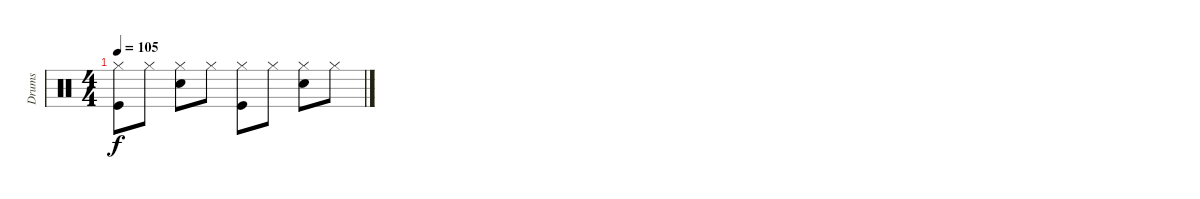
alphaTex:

\track ("Drums" "Drums") {instrument percussion}
\staff {score}
\articulation defaults
\ts (4 4)
\tempo 105
\clef neutral
\ks c
("Hi-Hat (closed)" "Kick (hit)").8{dy f} "Hi-Hat (closed)".8 ("Hi-Hat (closed)" "Electric Snare (hit)").8 "Hi-Hat (closed)".8 ("Hi-Hat (closed)" "Kick (hit)").8 "Hi-Hat (closed)".8 ("Hi-Hat (closed)" "Electric Snare (hit)").8 "Hi-Hat (closed)".8
